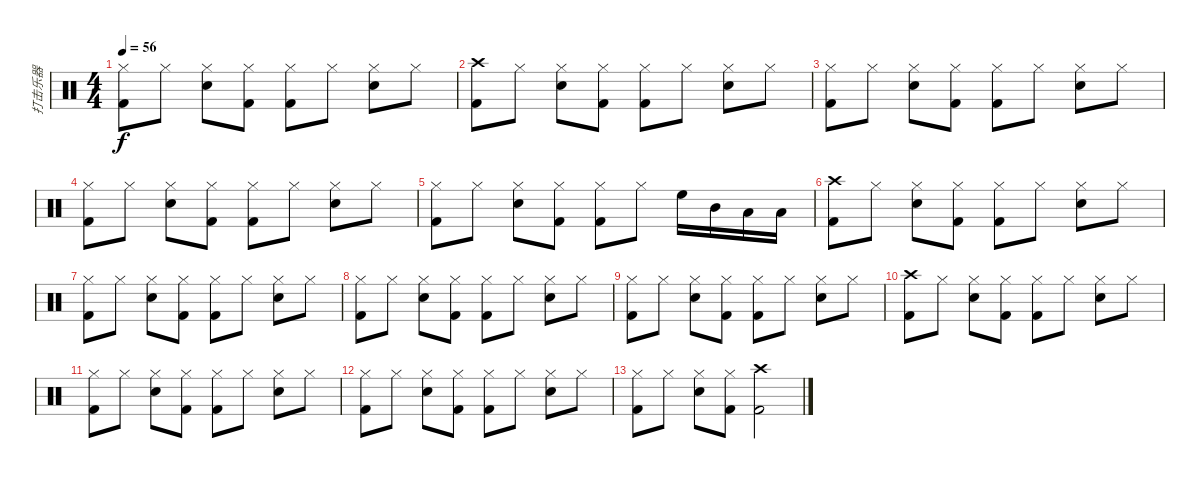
\track ("打击乐器" "打击乐器") {instrument percussion}
\staff {score}
\articulation defaults
\ts (4 4)
\tempo 56
\clef neutral
\ks c
("Hi-Hat (closed)" "Kick (hit) 2").8{dy f} "Hi-Hat (closed)".8 ("Hi-Hat (closed)" "Snare (hit) 2").8 ("Hi-Hat (closed)" "Kick (hit) 2").8 ("Hi-Hat (closed)" "Kick (hit) 2").8 "Hi-Hat (closed)".8 ("Hi-Hat (closed)" "Snare (hit) 2").8 "Hi-Hat (closed)".8 |
("Crash high (hit)" "Kick (hit) 2").8 "Hi-Hat (closed)".8 ("Hi-Hat (closed)" "Snare (hit) 2").8 ("Hi-Hat (closed)" "Kick (hit) 2").8 ("Hi-Hat (closed)" "Kick (hit) 2").8 "Hi-Hat (closed)".8 ("Hi-Hat (closed)" "Snare (hit) 2").8 "Hi-Hat (closed)".8 |
("Hi-Hat (closed)" "Kick (hit) 2").8 "Hi-Hat (closed)".8 ("Hi-Hat (closed)" "Snare (hit) 2").8 ("Hi-Hat (closed)" "Kick (hit) 2").8 ("Hi-Hat (closed)" "Kick (hit) 2").8 "Hi-Hat (closed)".8 ("Hi-Hat (closed)" "Snare (hit) 2").8 "Hi-Hat (closed)".8 |
("Hi-Hat (closed)" "Kick (hit) 2").8 "Hi-Hat (closed)".8 ("Hi-Hat (closed)" "Snare (hit) 2").8 ("Hi-Hat (closed)" "Kick (hit) 2").8 ("Hi-Hat (closed)" "Kick (hit) 2").8 "Hi-Hat (closed)".8 ("Hi-Hat (closed)" "Snare (hit) 2").8 "Hi-Hat (closed)".8 |
("Hi-Hat (closed)" "Kick (hit) 2").8 "Hi-Hat (closed)".8 ("Hi-Hat (closed)" "Hand Clap (hit)").8 ("Hi-Hat (closed)" "Kick (hit) 2").8 ("Hi-Hat (closed)" "Kick (hit) 2").8 "Hi-Hat (closed)".8 "High Floor Tom (hit)".16 "Mid Tom (hit)".16 "Low Tom (hit)".16 "Low Floor Tom (hit)".16 |
("Crash high (hit)" "Kick (hit) 2").8 "Hi-Hat (closed)".8 ("Hi-Hat (closed)" "Snare (hit) 2").8 ("Hi-Hat (closed)" "Kick (hit) 2").8 ("Hi-Hat (closed)" "Kick (hit) 2").8 "Hi-Hat (closed)".8 ("Hi-Hat (closed)" "Snare (hit) 2").8 "Hi-Hat (closed)".8 |
("Hi-Hat (closed)" "Kick (hit) 2").8 "Hi-Hat (closed)".8 ("Hi-Hat (closed)" "Snare (hit) 2").8 ("Hi-Hat (closed)" "Kick (hit) 2").8 ("Hi-Hat (closed)" "Kick (hit) 2").8 "Hi-Hat (closed)".8 ("Hi-Hat (closed)" "Snare (hit) 2").8 "Hi-Hat (closed)".8 |
("Hi-Hat (closed)" "Kick (hit) 2").8 "Hi-Hat (closed)".8 ("Hi-Hat (closed)" "Snare (hit) 2").8 ("Hi-Hat (closed)" "Kick (hit) 2").8 ("Hi-Hat (closed)" "Kick (hit) 2").8 "Hi-Hat (closed)".8 ("Hi-Hat (closed)" "Snare (hit) 2").8 "Hi-Hat (closed)".8 |
("Hi-Hat (closed)" "Kick (hit) 2").8 "Hi-Hat (closed)".8 ("Hi-Hat (closed)" "Snare (hit) 2").8 ("Hi-Hat (closed)" "Kick (hit) 2").8 ("Hi-Hat (closed)" "Kick (hit) 2").8 "Hi-Hat (closed)".8 ("Hi-Hat (closed)" "Snare (hit) 2").8 "Hi-Hat (closed)".8 |
("Crash high (hit)" "Kick (hit) 2").8 "Hi-Hat (closed)".8 ("Hi-Hat (closed)" "Snare (hit) 2").8 ("Hi-Hat (closed)" "Kick (hit) 2").8 ("Hi-Hat (closed)" "Kick (hit) 2").8 "Hi-Hat (closed)".8 ("Hi-Hat (closed)" "Snare (hit) 2").8 "Hi-Hat (closed)".8 |
("Hi-Hat (closed)" "Kick (hit) 2").8 "Hi-Hat (closed)".8 ("Hi-Hat (closed)" "Snare (hit) 2").8 ("Hi-Hat (closed)" "Kick (hit) 2").8 ("Hi-Hat (closed)" "Kick (hit) 2").8 "Hi-Hat (closed)".8 ("Hi-Hat (closed)" "Snare (hit) 2").8 "Hi-Hat (closed)".8 |
("Hi-Hat (closed)" "Kick (hit) 2").8 "Hi-Hat (closed)".8 ("Hi-Hat (closed)" "Snare (hit) 2").8 ("Hi-Hat (closed)" "Kick (hit) 2").8 ("Hi-Hat (closed)" "Kick (hit) 2").8 "Hi-Hat (closed)".8 ("Hi-Hat (closed)" "Snare (hit) 2").8 "Hi-Hat (closed)".8 |
("Hi-Hat (closed)" "Kick (hit) 2").8 "Hi-Hat (closed)".8 ("Hi-Hat (closed)" "Snare (hit) 2").8 ("Hi-Hat (closed)" "Kick (hit) 2").8 ("Crash high (hit)" "Kick (hit) 2").2
